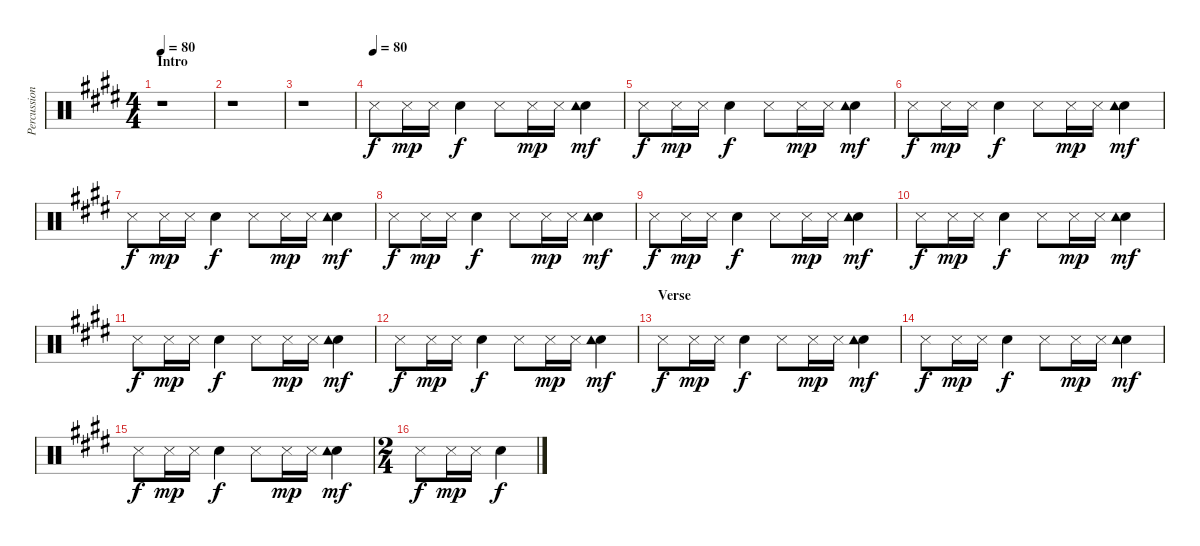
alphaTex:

\track ("Percussion" "Percussion") {instrument percussion}
\staff {score}
\articulation defaults
\ts (4 4)
\section ("" "Intro")
\tempo 80
\tempo 70
\tempo 80
\clef neutral
\ks c#minor
r.1{dy f} |
r.1 |
r.1 |
\tempo (80)
"Metronome (hit)".8 "Metronome (hit)".16{dy mp} "Metronome (hit)".16 "Snare (hit) 2".4{dy f} "Metronome (hit)".8 "Metronome (hit)".16{dy mp} "Metronome (hit)".16 ("Snare (hit) 2" "Tambourine (hit)").4{dy mf} |
"Metronome (hit)".8{dy f} "Metronome (hit)".16{dy mp} "Metronome (hit)".16 "Snare (hit) 2".4{dy f} "Metronome (hit)".8 "Metronome (hit)".16{dy mp} "Metronome (hit)".16 ("Snare (hit) 2" "Tambourine (hit)").4{dy mf} |
"Metronome (hit)".8{dy f} "Metronome (hit)".16{dy mp} "Metronome (hit)".16 "Snare (hit) 2".4{dy f} "Metronome (hit)".8 "Metronome (hit)".16{dy mp} "Metronome (hit)".16 ("Snare (hit) 2" "Tambourine (hit)").4{dy mf} |
"Metronome (hit)".8{dy f} "Metronome (hit)".16{dy mp} "Metronome (hit)".16 "Snare (hit) 2".4{dy f} "Metronome (hit)".8 "Metronome (hit)".16{dy mp} "Metronome (hit)".16 ("Snare (hit) 2" "Tambourine (hit)").4{dy mf} |
"Metronome (hit)".8{dy f} "Metronome (hit)".16{dy mp} "Metronome (hit)".16 "Snare (hit) 2".4{dy f} "Metronome (hit)".8 "Metronome (hit)".16{dy mp} "Metronome (hit)".16 ("Snare (hit) 2" "Tambourine (hit)").4{dy mf} |
"Metronome (hit)".8{dy f} "Metronome (hit)".16{dy mp} "Metronome (hit)".16 "Snare (hit) 2".4{dy f} "Metronome (hit)".8 "Metronome (hit)".16{dy mp} "Metronome (hit)".16 ("Snare (hit) 2" "Tambourine (hit)").4{dy mf} |
"Metronome (hit)".8{dy f} "Metronome (hit)".16{dy mp} "Metronome (hit)".16 "Snare (hit) 2".4{dy f} "Metronome (hit)".8 "Metronome (hit)".16{dy mp} "Metronome (hit)".16 ("Snare (hit) 2" "Tambourine (hit)").4{dy mf} |
"Metronome (hit)".8{dy f} "Metronome (hit)".16{dy mp} "Metronome (hit)".16 "Snare (hit) 2".4{dy f} "Metronome (hit)".8 "Metronome (hit)".16{dy mp} "Metronome (hit)".16 ("Snare (hit) 2" "Tambourine (hit)").4{dy mf} |
"Metronome (hit)".8{dy f} "Metronome (hit)".16{dy mp} "Metronome (hit)".16 "Snare (hit) 2".4{dy f} "Metronome (hit)".8 "Metronome (hit)".16{dy mp} "Metronome (hit)".16 ("Snare (hit) 2" "Tambourine (hit)").4{dy mf} |
\section ("" "Verse ")
"Metronome (hit)".8{dy f} "Metronome (hit)".16{dy mp} "Metronome (hit)".16 "Snare (hit) 2".4{dy f} "Metronome (hit)".8 "Metronome (hit)".16{dy mp} "Metronome (hit)".16 ("Snare (hit) 2" "Tambourine (hit)").4{dy mf} |
"Metronome (hit)".8{dy f} "Metronome (hit)".16{dy mp} "Metronome (hit)".16 "Snare (hit) 2".4{dy f} "Metronome (hit)".8 "Metronome (hit)".16{dy mp} "Metronome (hit)".16 ("Snare (hit) 2" "Tambourine (hit)").4{dy mf} |
"Metronome (hit)".8{dy f} "Metronome (hit)".16{dy mp} "Metronome (hit)".16 "Snare (hit) 2".4{dy f} "Metronome (hit)".8 "Metronome (hit)".16{dy mp} "Metronome (hit)".16 ("Snare (hit) 2" "Tambourine (hit)").4{dy mf} |
\ts (2 4)
"Metronome (hit)".8{dy f} "Metronome (hit)".16{dy mp} "Metronome (hit)".16 "Snare (hit) 2".4{dy f}
